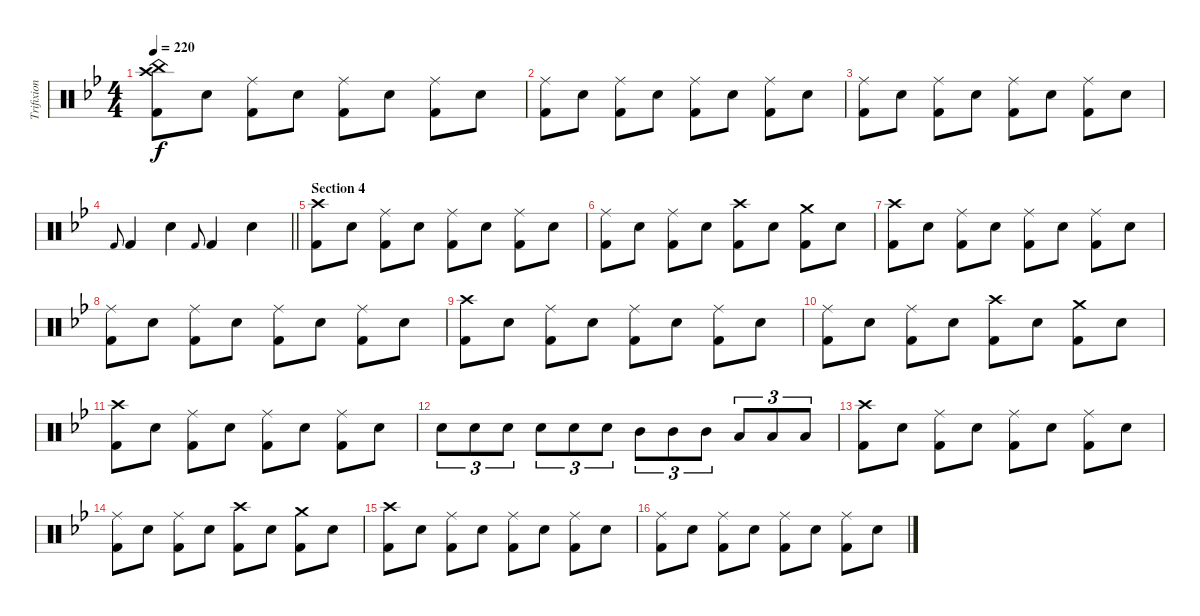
\track ("Trifixion" "Trifixion") {instrument percussion}
\staff {score}
\articulation defaults
\ts (4 4)
\tempo 220
\clef neutral
\ks gminor
("Crash high (hit)" "China (hit)" "Kick (hit) 2").8{dy f} "Electric Snare (hit)".8 ("Ride (middle)" "Kick (hit) 2").8 "Electric Snare (hit)".8 ("Ride (middle)" "Kick (hit) 2").8 "Electric Snare (hit)".8 ("Ride (middle)" "Kick (hit) 2").8 "Electric Snare (hit)".8 |
("Ride (middle)" "Kick (hit) 2").8 "Electric Snare (hit)".8 ("Ride (middle)" "Kick (hit) 2").8 "Electric Snare (hit)".8 ("Ride (middle)" "Kick (hit) 2").8 "Electric Snare (hit)".8 ("Ride (middle)" "Kick (hit) 2").8 "Electric Snare (hit)".8 |
("Ride (middle)" "Kick (hit) 2").8 "Electric Snare (hit)".8 ("Ride (middle)" "Kick (hit) 2").8 "Electric Snare (hit)".8 ("Ride (middle)" "Kick (hit) 2").8 "Electric Snare (hit)".8 ("Ride (middle)" "Kick (hit) 2").8 "Electric Snare (hit)".8 |
\barLineRight lightlight "Kick (hit) 2".8{gr onbeat} "Kick (hit) 2".4 "Electric Snare (hit)".4 "Kick (hit) 2".8{gr onbeat} "Kick (hit) 2".4 "Electric Snare (hit)".4
|
\section ("" "Section 4")
("Crash high (hit)" "Kick (hit) 2").8 "Electric Snare (hit)".8 ("Ride (middle)" "Kick (hit) 2").8 "Electric Snare (hit)".8 ("Ride (middle)" "Kick (hit) 2").8 "Electric Snare (hit)".8 ("Ride (middle)" "Kick (hit) 2").8 "Electric Snare (hit)".8 |
("Ride (middle)" "Kick (hit) 2").8 "Electric Snare (hit)".8 ("Ride (middle)" "Kick (hit) 2").8 "Electric Snare (hit)".8 ("Crash high (hit)" "Kick (hit) 2").8 "Electric Snare (hit)".8 ("Crash medium (hit)" "Kick (hit) 2").8 "Electric Snare (hit)".8 |
("Crash high (hit)" "Kick (hit) 2").8 "Electric Snare (hit)".8 ("Ride (middle)" "Kick (hit) 2").8 "Electric Snare (hit)".8 ("Ride (middle)" "Kick (hit) 2").8 "Electric Snare (hit)".8 ("Ride (middle)" "Kick (hit) 2").8 "Electric Snare (hit)".8 |
("Ride (middle)" "Kick (hit) 2").8 "Electric Snare (hit)".8 ("Ride (middle)" "Kick (hit) 2").8 "Electric Snare (hit)".8 ("Ride (middle)" "Kick (hit) 2").8 "Electric Snare (hit)".8 ("Ride (middle)" "Kick (hit) 2").8 "Electric Snare (hit)".8 |
("Crash high (hit)" "Kick (hit) 2").8 "Electric Snare (hit)".8 ("Ride (middle)" "Kick (hit) 2").8 "Electric Snare (hit)".8 ("Ride (middle)" "Kick (hit) 2").8 "Electric Snare (hit)".8 ("Ride (middle)" "Kick (hit) 2").8 "Electric Snare (hit)".8 |
("Ride (middle)" "Kick (hit) 2").8 "Electric Snare (hit)".8 ("Ride (middle)" "Kick (hit) 2").8 "Electric Snare (hit)".8 ("Crash high (hit)" "Kick (hit) 2").8 "Electric Snare (hit)".8 ("Crash medium (hit)" "Kick (hit) 2").8 "Electric Snare (hit)".8 |
("Crash high (hit)" "Kick (hit) 2").8 "Electric Snare (hit)".8 ("Ride (middle)" "Kick (hit) 2").8 "Electric Snare (hit)".8 ("Ride (middle)" "Kick (hit) 2").8 "Electric Snare (hit)".8 ("Ride (middle)" "Kick (hit) 2").8 "Electric Snare (hit)".8 |
"Electric Snare (hit)".8{tu (3 2)} "Electric Snare (hit)".8{tu (3 2)} "Electric Snare (hit)".8{tu (3 2)} "Electric Snare (hit)".8{tu (3 2)} "Electric Snare (hit)".8{tu (3 2)} "Electric Snare (hit)".8{tu (3 2)} "Mid Tom (hit)".8{tu (3 2)} "Mid Tom (hit)".8{tu (3 2)} "Mid Tom (hit)".8{tu (3 2)} "Low Tom (hit)".8{tu (3 2)} "Low Tom (hit)".8{tu (3 2)} "Low Tom (hit)".8{tu (3 2)} |
("Crash high (hit)" "Kick (hit) 2").8 "Electric Snare (hit)".8 ("Ride (middle)" "Kick (hit) 2").8 "Electric Snare (hit)".8 ("Ride (middle)" "Kick (hit) 2").8 "Electric Snare (hit)".8 ("Ride (middle)" "Kick (hit) 2").8 "Electric Snare (hit)".8 |
("Ride (middle)" "Kick (hit) 2").8 "Electric Snare (hit)".8 ("Ride (middle)" "Kick (hit) 2").8 "Electric Snare (hit)".8 ("Crash high (hit)" "Kick (hit) 2").8 "Electric Snare (hit)".8 ("Crash medium (hit)" "Kick (hit) 2").8 "Electric Snare (hit)".8 |
("Crash high (hit)" "Kick (hit) 2").8 "Electric Snare (hit)".8 ("Ride (middle)" "Kick (hit) 2").8 "Electric Snare (hit)".8 ("Ride (middle)" "Kick (hit) 2").8 "Electric Snare (hit)".8 ("Ride (middle)" "Kick (hit) 2").8 "Electric Snare (hit)".8 |
("Ride (middle)" "Kick (hit) 2").8 "Electric Snare (hit)".8 ("Ride (middle)" "Kick (hit) 2").8 "Electric Snare (hit)".8 ("Ride (middle)" "Kick (hit) 2").8 "Electric Snare (hit)".8 ("Ride (middle)" "Kick (hit) 2").8 "Electric Snare (hit)".8
